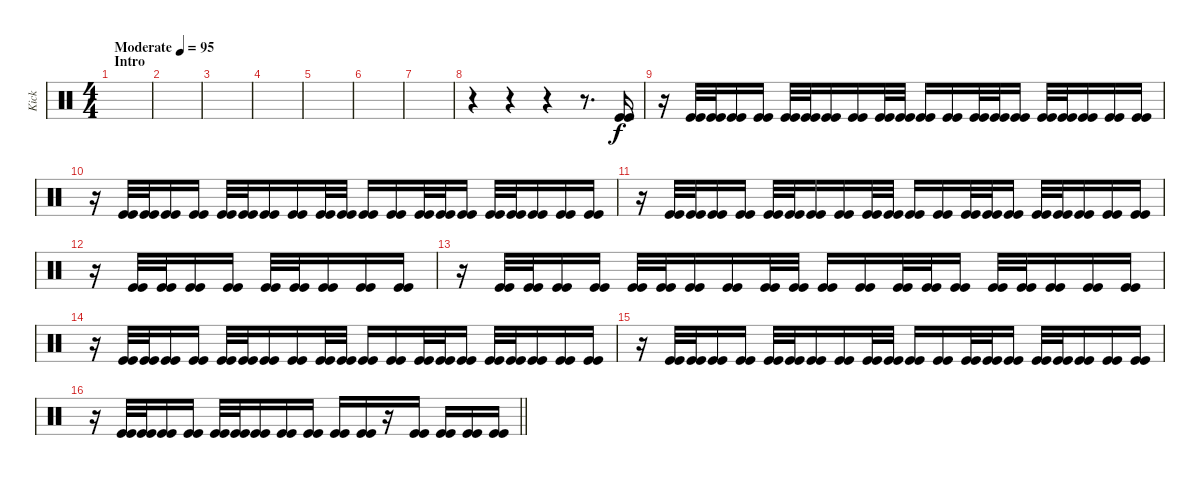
\track ("Kick" "Kick") {instrument percussion}
\staff {score}
\articulation defaults
\ts (4 4)
\section ("" "Intro")
\tempo (95 "Moderate")
\clef neutral
\ks c
|
|
|
|
|
|
|
r.4 r.4 r.4 r.8{d} ("Kick (hit)" "Kick (hit)").16 |
r.16 ("Kick (hit)" "Kick (hit)").32 ("Kick (hit)" "Kick (hit)").32 ("Kick (hit)" "Kick (hit)").16 ("Kick (hit)" "Kick (hit)").16 ("Kick (hit)" "Kick (hit)").32{beam merge} ("Kick (hit)" "Kick (hit)").32 ("Kick (hit)" "Kick (hit)").16 ("Kick (hit)" "Kick (hit)").16 ("Kick (hit)" "Kick (hit)").32 ("Kick (hit)" "Kick (hit)").32 ("Kick (hit)" "Kick (hit)").16{beam merge} ("Kick (hit)" "Kick (hit)").16{beam merge} ("Kick (hit)" "Kick (hit)").32 ("Kick (hit)" "Kick (hit)").32 ("Kick (hit)" "Kick (hit)").16 ("Kick (hit)" "Kick (hit)").32 ("Kick (hit)" "Kick (hit)").32 ("Kick (hit)" "Kick (hit)").16{beam merge} ("Kick (hit)" "Kick (hit)").16 ("Kick (hit)" "Kick (hit)").16 |
r.16 ("Kick (hit)" "Kick (hit)").32 ("Kick (hit)" "Kick (hit)").32{beam merge} ("Kick (hit)" "Kick (hit)").16 ("Kick (hit)" "Kick (hit)").16 ("Kick (hit)" "Kick (hit)").32 ("Kick (hit)" "Kick (hit)").32 ("Kick (hit)" "Kick (hit)").16 ("Kick (hit)" "Kick (hit)").16{beam merge} ("Kick (hit)" "Kick (hit)").32 ("Kick (hit)" "Kick (hit)").32 ("Kick (hit)" "Kick (hit)").16{beam merge} ("Kick (hit)" "Kick (hit)").16{beam merge} ("Kick (hit)" "Kick (hit)").32 ("Kick (hit)" "Kick (hit)").32 ("Kick (hit)" "Kick (hit)").16 ("Kick (hit)" "Kick (hit)").32 ("Kick (hit)" "Kick (hit)").32{beam merge} ("Kick (hit)" "Kick (hit)").16{beam merge} ("Kick (hit)" "Kick (hit)").16 ("Kick (hit)" "Kick (hit)").16 |
r.16 ("Kick (hit)" "Kick (hit)").32 ("Kick (hit)" "Kick (hit)").32{beam merge} ("Kick (hit)" "Kick (hit)").16 ("Kick (hit)" "Kick (hit)").16 ("Kick (hit)" "Kick (hit)").32 ("Kick (hit)" "Kick (hit)").32 ("Kick (hit)" "Kick (hit)").16 ("Kick (hit)" "Kick (hit)").16{beam merge} ("Kick (hit)" "Kick (hit)").32 ("Kick (hit)" "Kick (hit)").32 ("Kick (hit)" "Kick (hit)").16{beam merge} ("Kick (hit)" "Kick (hit)").16{beam merge} ("Kick (hit)" "Kick (hit)").32 ("Kick (hit)" "Kick (hit)").32 ("Kick (hit)" "Kick (hit)").16 ("Kick (hit)" "Kick (hit)").32 ("Kick (hit)" "Kick (hit)").32{beam merge} ("Kick (hit)" "Kick (hit)").16{beam merge} ("Kick (hit)" "Kick (hit)").16 ("Kick (hit)" "Kick (hit)").16 |
r.16 ("Kick (hit)" "Kick (hit)").32 ("Kick (hit)" "Kick (hit)").32{beam merge} ("Kick (hit)" "Kick (hit)").16 ("Kick (hit)" "Kick (hit)").16 ("Kick (hit)" "Kick (hit)").32 ("Kick (hit)" "Kick (hit)").32 ("Kick (hit)" "Kick (hit)").16 ("Kick (hit)" "Kick (hit)").16{beam merge} ("Kick (hit)" "Kick (hit)").16 |
r.16 ("Kick (hit)" "Kick (hit)").32 ("Kick (hit)" "Kick (hit)").32 ("Kick (hit)" "Kick (hit)").16 ("Kick (hit)" "Kick (hit)").16 ("Kick (hit)" "Kick (hit)").32{beam merge} ("Kick (hit)" "Kick (hit)").32 ("Kick (hit)" "Kick (hit)").16 ("Kick (hit)" "Kick (hit)").16 ("Kick (hit)" "Kick (hit)").32 ("Kick (hit)" "Kick (hit)").32 ("Kick (hit)" "Kick (hit)").16{beam merge} ("Kick (hit)" "Kick (hit)").16{beam merge} ("Kick (hit)" "Kick (hit)").32 ("Kick (hit)" "Kick (hit)").32 ("Kick (hit)" "Kick (hit)").16 ("Kick (hit)" "Kick (hit)").32 ("Kick (hit)" "Kick (hit)").32 ("Kick (hit)" "Kick (hit)").16{beam merge} ("Kick (hit)" "Kick (hit)").16 ("Kick (hit)" "Kick (hit)").16 |
r.16 ("Kick (hit)" "Kick (hit)").32 ("Kick (hit)" "Kick (hit)").32{beam merge} ("Kick (hit)" "Kick (hit)").16 ("Kick (hit)" "Kick (hit)").16 ("Kick (hit)" "Kick (hit)").32 ("Kick (hit)" "Kick (hit)").32 ("Kick (hit)" "Kick (hit)").16 ("Kick (hit)" "Kick (hit)").16{beam merge} ("Kick (hit)" "Kick (hit)").32 ("Kick (hit)" "Kick (hit)").32 ("Kick (hit)" "Kick (hit)").16{beam merge} ("Kick (hit)" "Kick (hit)").16{beam merge} ("Kick (hit)" "Kick (hit)").32 ("Kick (hit)" "Kick (hit)").32 ("Kick (hit)" "Kick (hit)").16 ("Kick (hit)" "Kick (hit)").32 ("Kick (hit)" "Kick (hit)").32{beam merge} ("Kick (hit)" "Kick (hit)").16{beam merge} ("Kick (hit)" "Kick (hit)").16 ("Kick (hit)" "Kick (hit)").16 |
r.16 ("Kick (hit)" "Kick (hit)").32 ("Kick (hit)" "Kick (hit)").32{beam merge} ("Kick (hit)" "Kick (hit)").16 ("Kick (hit)" "Kick (hit)").16 ("Kick (hit)" "Kick (hit)").32 ("Kick (hit)" "Kick (hit)").32 ("Kick (hit)" "Kick (hit)").16 ("Kick (hit)" "Kick (hit)").16{beam merge} ("Kick (hit)" "Kick (hit)").32 ("Kick (hit)" "Kick (hit)").32 ("Kick (hit)" "Kick (hit)").16{beam merge} ("Kick (hit)" "Kick (hit)").16{beam merge} ("Kick (hit)" "Kick (hit)").32 ("Kick (hit)" "Kick (hit)").32 ("Kick (hit)" "Kick (hit)").16 ("Kick (hit)" "Kick (hit)").32 ("Kick (hit)" "Kick (hit)").32{beam merge} ("Kick (hit)" "Kick (hit)").16{beam merge} ("Kick (hit)" "Kick (hit)").16 ("Kick (hit)" "Kick (hit)").16 |
\barLineRight lightlight
r.16 ("Kick (hit)" "Kick (hit)").32 ("Kick (hit)" "Kick (hit)").32{beam merge} ("Kick (hit)" "Kick (hit)").16 ("Kick (hit)" "Kick (hit)").16 ("Kick (hit)" "Kick (hit)").32 ("Kick (hit)" "Kick (hit)").32 ("Kick (hit)" "Kick (hit)").16 ("Kick (hit)" "Kick (hit)").16{beam merge} ("Kick (hit)" "Kick (hit)").16 ("Kick (hit)" "Kick (hit)").16 ("Kick (hit)" "Kick (hit)").16{beam merge} r.16{beam merge} ("Kick (hit)" "Kick (hit)").16 ("Kick (hit)" "Kick (hit)").16{beam merge} ("Kick (hit)" "Kick (hit)").16 ("Kick (hit)" "Kick (hit)").16
